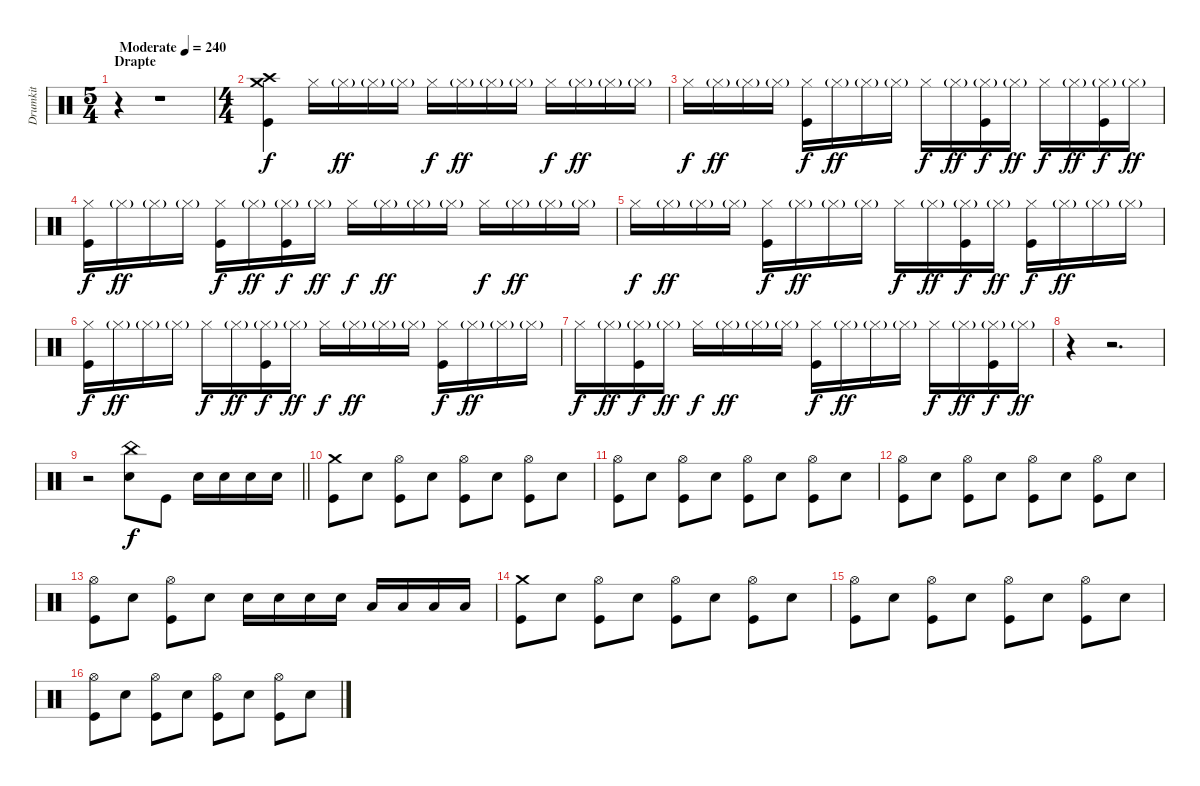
\track ("Drumkit" "Drumkit") {instrument percussion}
\staff {score}
\articulation defaults
\ts (5 4)
\section ("" "Drapte")
\tempo (240 "Moderate")
\clef neutral
\ks c
r.4{dy f} r.1 |
\ts (4 4)
("Crash medium (hit)" "Crash high (hit)" "Kick (hit)").4 "Hi-Hat (closed)".16 "Hi-Hat (closed)"{g}.16{dy ff} "Hi-Hat (closed)"{g}.16 "Hi-Hat (closed)"{g}.16 "Hi-Hat (closed)".16{dy f} "Hi-Hat (closed)"{g}.16{dy ff} "Hi-Hat (closed)"{g}.16 "Hi-Hat (closed)"{g}.16 "Hi-Hat (closed)".16{dy f} "Hi-Hat (closed)"{g}.16{dy ff} "Hi-Hat (closed)"{g}.16 "Hi-Hat (closed)"{g}.16 |
"Hi-Hat (closed)".16{dy f} "Hi-Hat (closed)"{g}.16{dy ff} "Hi-Hat (closed)"{g}.16 "Hi-Hat (closed)"{g}.16 ("Hi-Hat (closed)" "Kick (hit)").16{dy f} "Hi-Hat (closed)"{g}.16{dy ff} "Hi-Hat (closed)"{g}.16 "Hi-Hat (closed)"{g}.16 "Hi-Hat (closed)".16{dy f} "Hi-Hat (closed)"{g}.16{dy ff} ("Hi-Hat (closed)"{g} "Kick (hit)").16{dy f} "Hi-Hat (closed)"{g}.16{dy ff} "Hi-Hat (closed)".16{dy f} "Hi-Hat (closed)"{g}.16{dy ff} ("Hi-Hat (closed)"{g} "Kick (hit)").16{dy f} "Hi-Hat (closed)"{g}.16{dy ff} |
("Hi-Hat (closed)" "Kick (hit)").16{dy f} "Hi-Hat (closed)"{g}.16{dy ff} "Hi-Hat (closed)"{g}.16 "Hi-Hat (closed)"{g}.16 ("Hi-Hat (closed)" "Kick (hit)").16{dy f} "Hi-Hat (closed)"{g}.16{dy ff} ("Hi-Hat (closed)"{g} "Kick (hit)").16{dy f} "Hi-Hat (closed)"{g}.16{dy ff} "Hi-Hat (closed)".16{dy f} "Hi-Hat (closed)"{g}.16{dy ff} "Hi-Hat (closed)"{g}.16 "Hi-Hat (closed)"{g}.16 "Hi-Hat (closed)".16{dy f} "Hi-Hat (closed)"{g}.16{dy ff} "Hi-Hat (closed)"{g}.16 "Hi-Hat (closed)"{g}.16 |
"Hi-Hat (closed)".16{dy f} "Hi-Hat (closed)"{g}.16{dy ff} "Hi-Hat (closed)"{g}.16 "Hi-Hat (closed)"{g}.16 ("Hi-Hat (closed)" "Kick (hit)").16{dy f} "Hi-Hat (closed)"{g}.16{dy ff} "Hi-Hat (closed)"{g}.16 "Hi-Hat (closed)"{g}.16 "Hi-Hat (closed)".16{dy f} "Hi-Hat (closed)"{g}.16{dy ff} ("Hi-Hat (closed)"{g} "Kick (hit)").16{dy f} "Hi-Hat (closed)"{g}.16{dy ff} ("Hi-Hat (closed)" "Kick (hit)").16{dy f} "Hi-Hat (closed)"{g}.16{dy ff} "Hi-Hat (closed)"{g}.16 "Hi-Hat (closed)"{g}.16 |
("Hi-Hat (closed)" "Kick (hit)").16{dy f} "Hi-Hat (closed)"{g}.16{dy ff} "Hi-Hat (closed)"{g}.16 "Hi-Hat (closed)"{g}.16 "Hi-Hat (closed)".16{dy f} "Hi-Hat (closed)"{g}.16{dy ff} ("Hi-Hat (closed)"{g} "Kick (hit)").16{dy f} "Hi-Hat (closed)"{g}.16{dy ff} "Hi-Hat (closed)".16{dy f} "Hi-Hat (closed)"{g}.16{dy ff} "Hi-Hat (closed)"{g}.16 "Hi-Hat (closed)"{g}.16 ("Hi-Hat (closed)" "Kick (hit)").16{dy f} "Hi-Hat (closed)"{g}.16{dy ff} "Hi-Hat (closed)"{g}.16 "Hi-Hat (closed)"{g}.16 |
"Hi-Hat (closed)".16{dy f} "Hi-Hat (closed)"{g}.16{dy ff} ("Hi-Hat (closed)"{g} "Kick (hit)").16{dy f} "Hi-Hat (closed)"{g}.16{dy ff} "Hi-Hat (closed)".16{dy f} "Hi-Hat (closed)"{g}.16{dy ff} "Hi-Hat (closed)"{g}.16 "Hi-Hat (closed)"{g}.16 ("Hi-Hat (closed)" "Kick (hit)").16{dy f} "Hi-Hat (closed)"{g}.16{dy ff} "Hi-Hat (closed)"{g}.16 "Hi-Hat (closed)"{g}.16 "Hi-Hat (closed)".16{dy f} "Hi-Hat (closed)"{g}.16{dy ff} ("Hi-Hat (closed)"{g} "Kick (hit)").16{dy f} "Hi-Hat (closed)"{g}.16{dy ff} |
r.4 r.2{d} |
\barLineRight lightlight
r.2 ("China (hit)" "Snare (hit) 2").8{dy f} "Kick (hit)".8 "Snare (hit) 2".16 "Snare (hit) 2".16 "Snare (hit) 2".16 "Snare (hit) 2".16 |
\section ("" "")
("Crash medium (hit)" "Kick (hit)").8 "Snare (hit) 2".8 ("Hi-Hat (open)" "Kick (hit)").8 "Snare (hit) 2".8 ("Hi-Hat (open)" "Kick (hit)").8 "Snare (hit) 2".8 ("Hi-Hat (open)" "Kick (hit)").8 "Snare (hit) 2".8 |
("Hi-Hat (open)" "Kick (hit)").8 "Snare (hit) 2".8 ("Hi-Hat (open)" "Kick (hit)").8 "Snare (hit) 2".8 ("Hi-Hat (open)" "Kick (hit)").8 "Snare (hit) 2".8 ("Hi-Hat (open)" "Kick (hit)").8 "Snare (hit) 2".8 |
("Hi-Hat (open)" "Kick (hit)").8 "Snare (hit) 2".8 ("Hi-Hat (open)" "Kick (hit)").8 "Snare (hit) 2".8 ("Hi-Hat (open)" "Kick (hit)").8 "Snare (hit) 2".8 ("Hi-Hat (open)" "Kick (hit)").8 "Snare (hit) 2".8 |
("Hi-Hat (open)" "Kick (hit)").8 "Snare (hit) 2".8 ("Hi-Hat (open)" "Kick (hit)").8 "Snare (hit) 2".8 "Snare (hit) 2".16 "Snare (hit) 2".16 "Snare (hit) 2".16 "Snare (hit) 2".16 "Low Tom (hit)".16 "Low Tom (hit)".16 "Low Tom (hit)".16 "Low Tom (hit)".16 |
("Crash medium (hit)" "Kick (hit)").8 "Snare (hit) 2".8 ("Hi-Hat (open)" "Kick (hit)").8 "Snare (hit) 2".8 ("Hi-Hat (open)" "Kick (hit)").8 "Snare (hit) 2".8 ("Hi-Hat (open)" "Kick (hit)").8 "Snare (hit) 2".8 |
("Hi-Hat (open)" "Kick (hit)").8 "Snare (hit) 2".8 ("Hi-Hat (open)" "Kick (hit)").8 "Snare (hit) 2".8 ("Hi-Hat (open)" "Kick (hit)").8 "Snare (hit) 2".8 ("Hi-Hat (open)" "Kick (hit)").8 "Snare (hit) 2".8 |
("Hi-Hat (open)" "Kick (hit)").8 "Snare (hit) 2".8 ("Hi-Hat (open)" "Kick (hit)").8 "Snare (hit) 2".8 ("Hi-Hat (open)" "Kick (hit)").8 "Snare (hit) 2".8 ("Hi-Hat (open)" "Kick (hit)").8 "Snare (hit) 2".8
